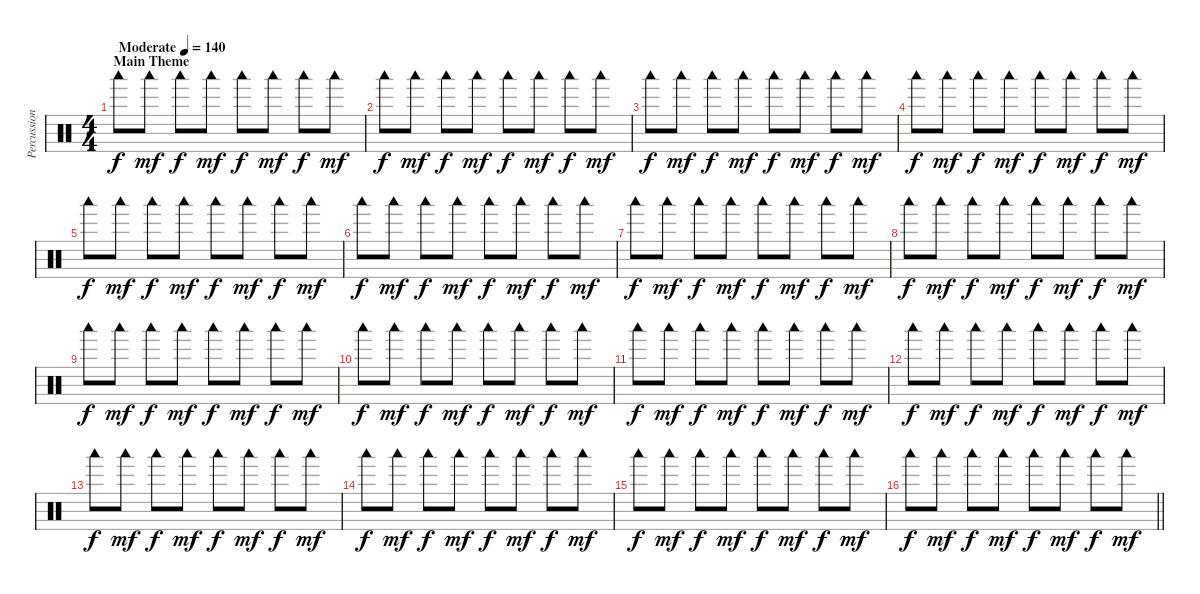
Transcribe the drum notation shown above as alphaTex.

\track ("Percussions" "Percussion") {instrument percussion}
\staff {score}
\articulation defaults
\ts (4 4)
\section ("" "Main Theme")
\tempo (140 "Moderate")
\clef neutral
\ks c "Woodblock low (hit)".8{dy f} "Woodblock low (hit)".8{dy mf} "Woodblock low (hit)".8{dy f} "Woodblock low (hit)".8{dy mf} "Woodblock low (hit)".8{dy f} "Woodblock low (hit)".8{dy mf} "Woodblock low (hit)".8{dy f} "Woodblock low (hit)".8{dy mf}
|
"Woodblock low (hit)".8{dy f} "Woodblock low (hit)".8{dy mf} "Woodblock low (hit)".8{dy f} "Woodblock low (hit)".8{dy mf} "Woodblock low (hit)".8{dy f} "Woodblock low (hit)".8{dy mf} "Woodblock low (hit)".8{dy f} "Woodblock low (hit)".8{dy mf} |
"Woodblock low (hit)".8{dy f} "Woodblock low (hit)".8{dy mf} "Woodblock low (hit)".8{dy f} "Woodblock low (hit)".8{dy mf} "Woodblock low (hit)".8{dy f} "Woodblock low (hit)".8{dy mf} "Woodblock low (hit)".8{dy f} "Woodblock low (hit)".8{dy mf} |
"Woodblock low (hit)".8{dy f} "Woodblock low (hit)".8{dy mf} "Woodblock low (hit)".8{dy f} "Woodblock low (hit)".8{dy mf} "Woodblock low (hit)".8{dy f} "Woodblock low (hit)".8{dy mf} "Woodblock low (hit)".8{dy f} "Woodblock low (hit)".8{dy mf} |
"Woodblock low (hit)".8{dy f} "Woodblock low (hit)".8{dy mf} "Woodblock low (hit)".8{dy f} "Woodblock low (hit)".8{dy mf} "Woodblock low (hit)".8{dy f} "Woodblock low (hit)".8{dy mf} "Woodblock low (hit)".8{dy f} "Woodblock low (hit)".8{dy mf} |
"Woodblock low (hit)".8{dy f} "Woodblock low (hit)".8{dy mf} "Woodblock low (hit)".8{dy f} "Woodblock low (hit)".8{dy mf} "Woodblock low (hit)".8{dy f} "Woodblock low (hit)".8{dy mf} "Woodblock low (hit)".8{dy f} "Woodblock low (hit)".8{dy mf} |
"Woodblock low (hit)".8{dy f} "Woodblock low (hit)".8{dy mf} "Woodblock low (hit)".8{dy f} "Woodblock low (hit)".8{dy mf} "Woodblock low (hit)".8{dy f} "Woodblock low (hit)".8{dy mf} "Woodblock low (hit)".8{dy f} "Woodblock low (hit)".8{dy mf} |
"Woodblock low (hit)".8{dy f} "Woodblock low (hit)".8{dy mf} "Woodblock low (hit)".8{dy f} "Woodblock low (hit)".8{dy mf} "Woodblock low (hit)".8{dy f} "Woodblock low (hit)".8{dy mf} "Woodblock low (hit)".8{dy f} "Woodblock low (hit)".8{dy mf} |
"Woodblock low (hit)".8{dy f} "Woodblock low (hit)".8{dy mf} "Woodblock low (hit)".8{dy f} "Woodblock low (hit)".8{dy mf} "Woodblock low (hit)".8{dy f} "Woodblock low (hit)".8{dy mf} "Woodblock low (hit)".8{dy f} "Woodblock low (hit)".8{dy mf} |
"Woodblock low (hit)".8{dy f} "Woodblock low (hit)".8{dy mf} "Woodblock low (hit)".8{dy f} "Woodblock low (hit)".8{dy mf} "Woodblock low (hit)".8{dy f} "Woodblock low (hit)".8{dy mf} "Woodblock low (hit)".8{dy f} "Woodblock low (hit)".8{dy mf} |
"Woodblock low (hit)".8{dy f} "Woodblock low (hit)".8{dy mf} "Woodblock low (hit)".8{dy f} "Woodblock low (hit)".8{dy mf} "Woodblock low (hit)".8{dy f} "Woodblock low (hit)".8{dy mf} "Woodblock low (hit)".8{dy f} "Woodblock low (hit)".8{dy mf} |
"Woodblock low (hit)".8{dy f} "Woodblock low (hit)".8{dy mf} "Woodblock low (hit)".8{dy f} "Woodblock low (hit)".8{dy mf} "Woodblock low (hit)".8{dy f} "Woodblock low (hit)".8{dy mf} "Woodblock low (hit)".8{dy f} "Woodblock low (hit)".8{dy mf} |
"Woodblock low (hit)".8{dy f} "Woodblock low (hit)".8{dy mf} "Woodblock low (hit)".8{dy f} "Woodblock low (hit)".8{dy mf} "Woodblock low (hit)".8{dy f} "Woodblock low (hit)".8{dy mf} "Woodblock low (hit)".8{dy f} "Woodblock low (hit)".8{dy mf} |
"Woodblock low (hit)".8{dy f} "Woodblock low (hit)".8{dy mf} "Woodblock low (hit)".8{dy f} "Woodblock low (hit)".8{dy mf} "Woodblock low (hit)".8{dy f} "Woodblock low (hit)".8{dy mf} "Woodblock low (hit)".8{dy f} "Woodblock low (hit)".8{dy mf} |
"Woodblock low (hit)".8{dy f} "Woodblock low (hit)".8{dy mf} "Woodblock low (hit)".8{dy f} "Woodblock low (hit)".8{dy mf} "Woodblock low (hit)".8{dy f} "Woodblock low (hit)".8{dy mf} "Woodblock low (hit)".8{dy f} "Woodblock low (hit)".8{dy mf} |
\barLineRight lightlight "Woodblock low (hit)".8{dy f} "Woodblock low (hit)".8{dy mf} "Woodblock low (hit)".8{dy f} "Woodblock low (hit)".8{dy mf} "Woodblock low (hit)".8{dy f} "Woodblock low (hit)".8{dy mf} "Woodblock low (hit)".8{dy f} "Woodblock low (hit)".8{dy mf}
